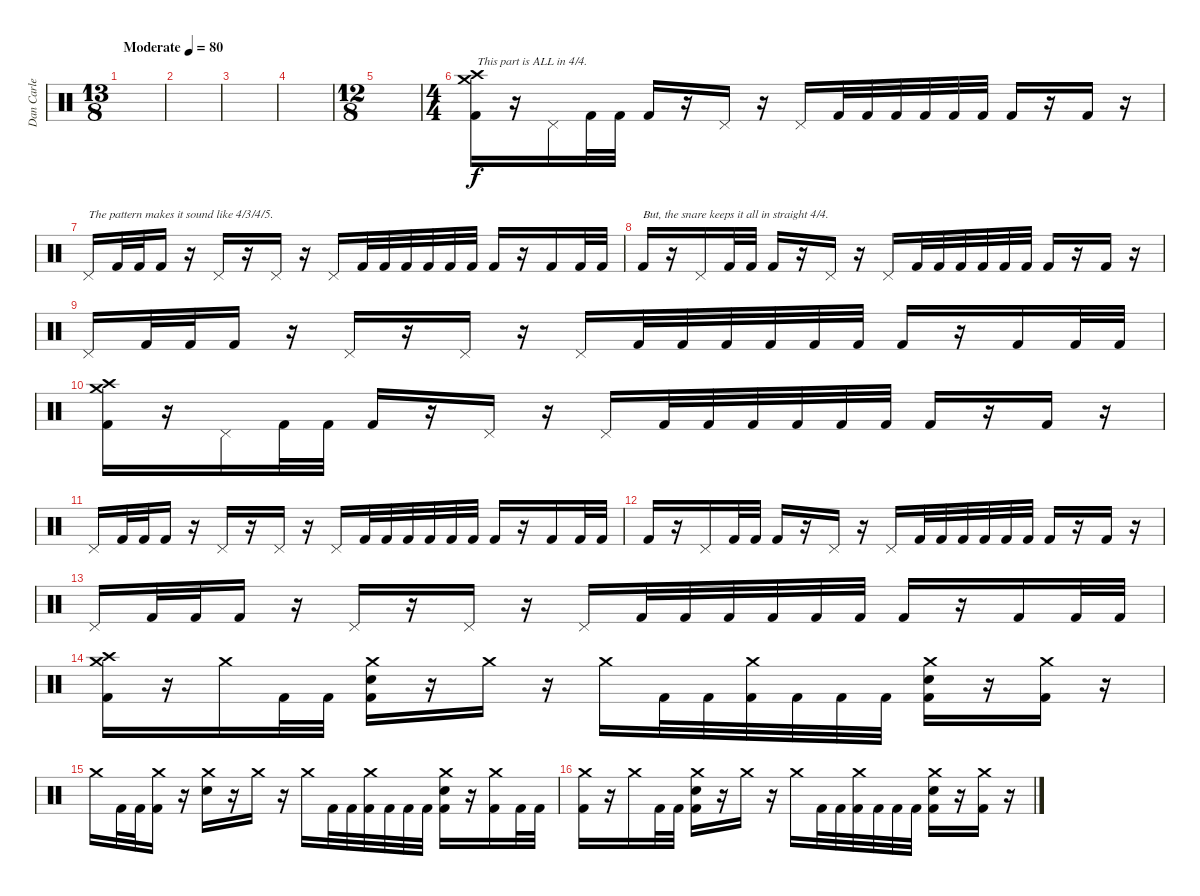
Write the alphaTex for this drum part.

\track ("Dan Carle" "Dan Carle") {instrument percussion}
\staff {score}
\articulation defaults
\ts (13 8)
\tempo (80 "Moderate")
\clef neutral
\ks c
|
|
|
|
\ts (12 8)
|
\ts (4 4)
("Crash high (hit)" "Crash medium (hit)" "Kick (hit) 2").16{txt "This part is ALL in 4/4."} r.16 "Pedal Hi-Hat (hit)".16 "Kick (hit) 2".32 "Kick (hit) 2".32 "Kick (hit) 2".16 r.16 "Pedal Hi-Hat (hit)".16 r.16 "Pedal Hi-Hat (hit)".16 "Kick (hit) 2".32 "Kick (hit) 2".32 "Kick (hit) 2".32 "Kick (hit) 2".32 "Kick (hit) 2".32 "Kick (hit) 2".32 "Kick (hit) 2".16 r.16 "Kick (hit) 2".16 r.16 |
"Pedal Hi-Hat (hit)".16{txt "The pattern makes it sound like 4/3/4/5."} "Kick (hit) 2".32 "Kick (hit) 2".32 "Kick (hit) 2".16 r.16 "Pedal Hi-Hat (hit)".16 r.16 "Pedal Hi-Hat (hit)".16 r.16 "Pedal Hi-Hat (hit)".16 "Kick (hit) 2".32 "Kick (hit) 2".32 "Kick (hit) 2".32 "Kick (hit) 2".32 "Kick (hit) 2".32 "Kick (hit) 2".32 "Kick (hit) 2".16 r.16 "Kick (hit) 2".16 "Kick (hit) 2".32 "Kick (hit) 2".32 |
"Kick (hit) 2".16{txt "But, the snare keeps it all in straight 4/4."} r.16 "Pedal Hi-Hat (hit)".16 "Kick (hit) 2".32 "Kick (hit) 2".32 "Kick (hit) 2".16 r.16 "Pedal Hi-Hat (hit)".16 r.16 "Pedal Hi-Hat (hit)".16 "Kick (hit) 2".32 "Kick (hit) 2".32 "Kick (hit) 2".32 "Kick (hit) 2".32 "Kick (hit) 2".32 "Kick (hit) 2".32 "Kick (hit) 2".16 r.16 "Kick (hit) 2".16 r.16 |
"Pedal Hi-Hat (hit)".16 "Kick (hit) 2".32 "Kick (hit) 2".32 "Kick (hit) 2".16 r.16 "Pedal Hi-Hat (hit)".16 r.16 "Pedal Hi-Hat (hit)".16 r.16 "Pedal Hi-Hat (hit)".16 "Kick (hit) 2".32 "Kick (hit) 2".32 "Kick (hit) 2".32 "Kick (hit) 2".32 "Kick (hit) 2".32 "Kick (hit) 2".32 "Kick (hit) 2".16 r.16 "Kick (hit) 2".16 "Kick (hit) 2".32 "Kick (hit) 2".32 |
("Crash high (hit)" "Crash medium (hit)" "Kick (hit) 2").16 r.16 "Pedal Hi-Hat (hit)".16 "Kick (hit) 2".32 "Kick (hit) 2".32 "Kick (hit) 2".16 r.16 "Pedal Hi-Hat (hit)".16 r.16 "Pedal Hi-Hat (hit)".16 "Kick (hit) 2".32 "Kick (hit) 2".32 "Kick (hit) 2".32 "Kick (hit) 2".32 "Kick (hit) 2".32 "Kick (hit) 2".32 "Kick (hit) 2".16 r.16 "Kick (hit) 2".16 r.16 |
"Pedal Hi-Hat (hit)".16 "Kick (hit) 2".32 "Kick (hit) 2".32 "Kick (hit) 2".16 r.16 "Pedal Hi-Hat (hit)".16 r.16 "Pedal Hi-Hat (hit)".16 r.16 "Pedal Hi-Hat (hit)".16 "Kick (hit) 2".32 "Kick (hit) 2".32 "Kick (hit) 2".32 "Kick (hit) 2".32 "Kick (hit) 2".32 "Kick (hit) 2".32 "Kick (hit) 2".16 r.16 "Kick (hit) 2".16 "Kick (hit) 2".32 "Kick (hit) 2".32 |
"Kick (hit) 2".16 r.16 "Pedal Hi-Hat (hit)".16 "Kick (hit) 2".32 "Kick (hit) 2".32 "Kick (hit) 2".16 r.16 "Pedal Hi-Hat (hit)".16 r.16 "Pedal Hi-Hat (hit)".16 "Kick (hit) 2".32 "Kick (hit) 2".32 "Kick (hit) 2".32 "Kick (hit) 2".32 "Kick (hit) 2".32 "Kick (hit) 2".32 "Kick (hit) 2".16 r.16 "Kick (hit) 2".16 r.16 |
"Pedal Hi-Hat (hit)".16 "Kick (hit) 2".32 "Kick (hit) 2".32 "Kick (hit) 2".16 r.16 "Pedal Hi-Hat (hit)".16 r.16 "Pedal Hi-Hat (hit)".16 r.16 "Pedal Hi-Hat (hit)".16 "Kick (hit) 2".32 "Kick (hit) 2".32 "Kick (hit) 2".32 "Kick (hit) 2".32 "Kick (hit) 2".32 "Kick (hit) 2".32 "Kick (hit) 2".16 r.16 "Kick (hit) 2".16 "Kick (hit) 2".32 "Kick (hit) 2".32 |
("Crash medium (hit)" "Crash high (hit)" "Kick (hit) 2").16 r.16 "Crash medium (hit)".16 "Kick (hit) 2".32 "Kick (hit) 2".32 ("Crash medium (hit)" "Snare (hit) 2" "Kick (hit) 2").16 r.16 "Crash medium (hit)".16 r.16 "Crash medium (hit)".16 "Kick (hit) 2".32 "Kick (hit) 2".32 ("Crash medium (hit)" "Kick (hit) 2").32 "Kick (hit) 2".32 "Kick (hit) 2".32 "Kick (hit) 2".32 ("Crash medium (hit)" "Snare (hit) 2" "Kick (hit) 2").16 r.16 ("Crash medium (hit)" "Kick (hit) 2").16 r.16 |
"Crash medium (hit)".16 "Kick (hit) 2".32 "Kick (hit) 2".32 ("Crash medium (hit)" "Kick (hit) 2").16 r.16 ("Crash medium (hit)" "Snare (hit) 2").16 r.16 "Crash medium (hit)".16 r.16 "Crash medium (hit)".16 "Kick (hit) 2".32 "Kick (hit) 2".32 ("Crash medium (hit)" "Kick (hit) 2").32 "Kick (hit) 2".32 "Kick (hit) 2".32 "Kick (hit) 2".32 ("Crash medium (hit)" "Snare (hit) 2" "Kick (hit) 2").16 r.16 ("Crash medium (hit)" "Kick (hit) 2").16 "Kick (hit) 2".32 "Kick (hit) 2".32 |
("Crash medium (hit)" "Kick (hit) 2").16 r.16 "Crash medium (hit)".16 "Kick (hit) 2".32 "Kick (hit) 2".32 ("Crash medium (hit)" "Snare (hit) 2" "Kick (hit) 2").16 r.16 "Crash medium (hit)".16 r.16 "Crash medium (hit)".16 "Kick (hit) 2".32 "Kick (hit) 2".32 ("Crash medium (hit)" "Kick (hit) 2").32 "Kick (hit) 2".32 "Kick (hit) 2".32 "Kick (hit) 2".32 ("Crash medium (hit)" "Snare (hit) 2" "Kick (hit) 2").16 r.16 ("Crash medium (hit)" "Kick (hit) 2").16 r.16
